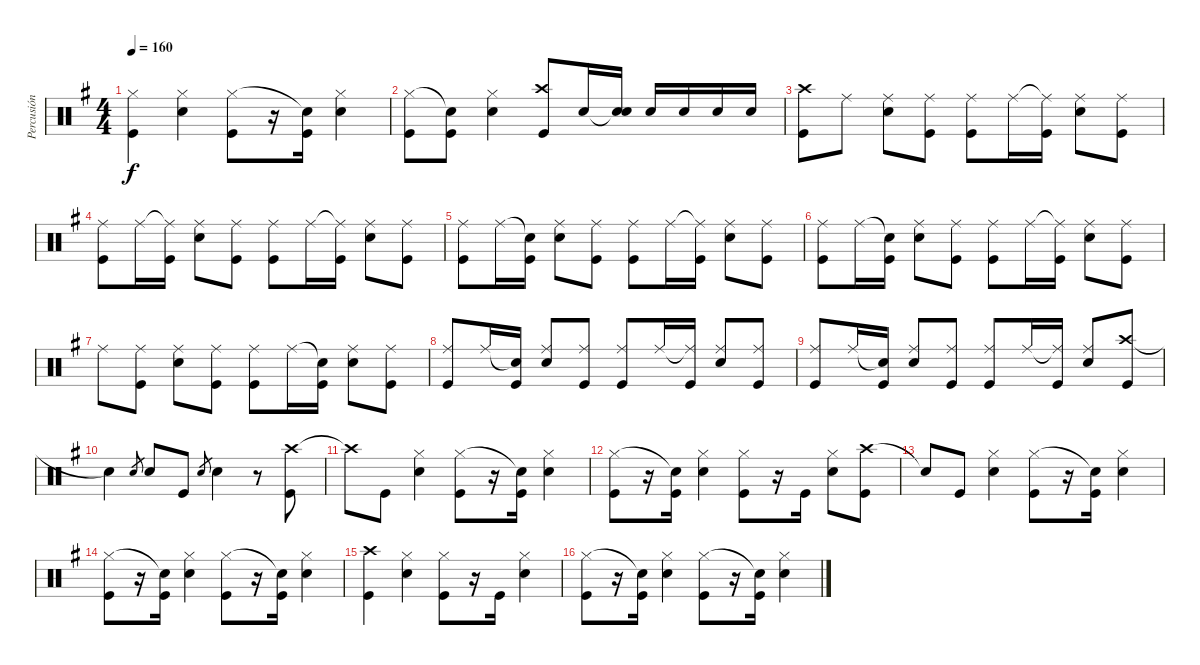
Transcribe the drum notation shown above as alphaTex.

\track ("Percusión" "Percusión") {instrument percussion}
\staff {score}
\articulation defaults
\ts (4 4)
\tempo 160
\clef neutral
\ks g
("Hi-Hat (closed)" "Kick (hit)").4{dy f} ("Hi-Hat (closed)" "Snare (hit) 2").4 ("Hi-Hat (closed)" "Kick (hit)").8 r.16 ("Snare (hit)"{t} "Kick (hit)").16 ("Hi-Hat (closed)" "Snare (hit) 2").4 |
("Hi-Hat (closed)" "Kick (hit)").8 ("Snare (hit)"{t} "Kick (hit)").8 ("Hi-Hat (closed)" "Snare (hit) 2").4 ("Crash high (hit)" "Kick (hit)").8{beam Up} "Snare (hit) 2".16{beam Up} ("Snare (hit)"{t} "Snare (hit) 2").16{beam Up} "Snare (hit) 2".16{beam Up} "Snare (hit) 2".16{beam Up} "Snare (hit) 2".16{beam Up} "Snare (hit) 2".16{beam Up} |
("Crash high (hit)" "Kick (hit)").8 "Ride (middle)".8 ("Ride (middle)" "Snare (hit) 2").8 ("Ride (middle)" "Kick (hit)").8 ("Ride (middle)" "Kick (hit)").8 "Ride (middle)".16 ("Ride (middle)"{t} "Kick (hit)").16 ("Ride (middle)" "Snare (hit) 2").8 ("Ride (middle)" "Kick (hit)").8 |
("Ride (middle)" "Kick (hit)").8 "Ride (middle)".16 ("Ride (middle)"{t} "Kick (hit)").16 ("Ride (middle)" "Snare (hit) 2").8 ("Ride (middle)" "Kick (hit)").8 ("Ride (middle)" "Kick (hit)").8 "Ride (middle)".16 ("Ride (middle)"{t} "Kick (hit)").16 ("Ride (middle)" "Snare (hit) 2").8 ("Ride (middle)" "Kick (hit)").8 |
("Ride (middle)" "Kick (hit)").8 "Ride (middle)".16 ("Snare (hit)"{t} "Kick (hit)").16 ("Ride (middle)" "Snare (hit) 2").8 ("Ride (middle)" "Kick (hit)").8 ("Ride (middle)" "Kick (hit)").8 "Ride (middle)".16 ("Ride (middle)"{t} "Kick (hit)").16 ("Ride (middle)" "Snare (hit) 2").8 ("Ride (middle)" "Kick (hit)").8 |
("Ride (middle)" "Kick (hit)").8 "Ride (middle)".16 ("Snare (hit)"{t} "Kick (hit)").16 ("Ride (middle)" "Snare (hit) 2").8 ("Ride (middle)" "Kick (hit)").8 ("Ride (middle)" "Kick (hit)").8 "Ride (middle)".16 ("Ride (middle)"{t} "Kick (hit)").16 ("Ride (middle)" "Snare (hit) 2").8 ("Ride (middle)" "Kick (hit)").8 |
"Ride (middle)".8 ("Ride (middle)" "Kick (hit)").8 ("Ride (middle)" "Snare (hit) 2").8 ("Ride (middle)" "Kick (hit)").8 ("Ride (middle)" "Kick (hit)").8 "Ride (middle)".16 ("Snare (hit)"{t} "Kick (hit)").16 ("Ride (middle)" "Snare (hit) 2").8 ("Ride (middle)" "Kick (hit)").8 |
("Ride (middle)" "Kick (hit)").8{beam Up} "Ride (middle)".16{beam Up} ("Snare (hit)"{t} "Kick (hit)").16{beam Up} ("Ride (middle)" "Snare (hit) 2").8{beam Up} ("Ride (middle)" "Kick (hit)").8{beam Up} ("Ride (middle)" "Kick (hit)").8{beam Up} "Ride (middle)".16{beam Up} ("Ride (middle)"{t} "Kick (hit)").16{beam Up} ("Ride (middle)" "Snare (hit) 2").8{beam Up} ("Ride (middle)" "Kick (hit)").8{beam Up} |
("Ride (middle)" "Kick (hit)").8{beam Up} "Ride (middle)".16{beam Up} ("Snare (hit)"{t} "Kick (hit)").16{beam Up} ("Ride (middle)" "Snare (hit) 2").8{beam Up} ("Ride (middle)" "Kick (hit)").8{beam Up} ("Ride (middle)" "Kick (hit)").8{beam Up} "Ride (middle)".16{beam Up} ("Ride (middle)"{t} "Kick (hit)").16{beam Up} ("Ride (middle)" "Snare (hit) 2").8{beam Up} ("Crash high (hit)" "Kick (hit)").8{beam Up} |
"Snare (hit)"{t}.4 "Snare (hit) 2".8{gr} "Snare (hit) 2".8 "Kick (hit)".8 "Snare (hit) 2".8{gr} "Snare (hit) 2".4 r.8 ("Crash high (hit)" "Kick (hit)").8 |
"Crash high (hit)"{t}.8 "Kick (hit)".8 ("Hi-Hat (closed)" "Snare (hit) 2").4 ("Hi-Hat (closed)" "Kick (hit)").8 r.16 ("Snare (hit)"{t} "Kick (hit)").16 ("Hi-Hat (closed)" "Snare (hit) 2").4 |
("Hi-Hat (closed)" "Kick (hit)").8 r.16 ("Snare (hit)"{t} "Kick (hit)").16 ("Hi-Hat (closed)" "Snare (hit) 2").4 ("Hi-Hat (closed)" "Kick (hit)").8 r.16 "Kick (hit)".16 ("Hi-Hat (closed)" "Snare (hit) 2").8 ("Crash high (hit)" "Kick (hit)").8 |
"Snare (hit)"{t}.8 "Kick (hit)".8 ("Hi-Hat (closed)" "Snare (hit) 2").4 ("Hi-Hat (closed)" "Kick (hit)").8 r.16 ("Snare (hit)"{t} "Kick (hit)").16 ("Hi-Hat (closed)" "Snare (hit) 2").4 |
("Hi-Hat (closed)" "Kick (hit)").8 r.16 ("Snare (hit)"{t} "Kick (hit)").16 ("Hi-Hat (closed)" "Snare (hit) 2").4 ("Hi-Hat (closed)" "Kick (hit)").8 r.16 ("Snare (hit)"{t} "Kick (hit)").16 ("Hi-Hat (closed)" "Snare (hit) 2").4 |
("Crash high (hit)" "Kick (hit)").4 ("Hi-Hat (closed)" "Snare (hit) 2").4 ("Hi-Hat (closed)" "Kick (hit)").8 r.16 "Kick (hit)".16 ("Hi-Hat (closed)" "Snare (hit) 2").4 |
("Hi-Hat (closed)" "Kick (hit)").8 r.16 ("Snare (hit)"{t} "Kick (hit)").16 ("Hi-Hat (closed)" "Snare (hit) 2").4 ("Hi-Hat (closed)" "Kick (hit)").8 r.16 ("Snare (hit)"{t} "Kick (hit)").16 ("Hi-Hat (closed)" "Snare (hit) 2").4
